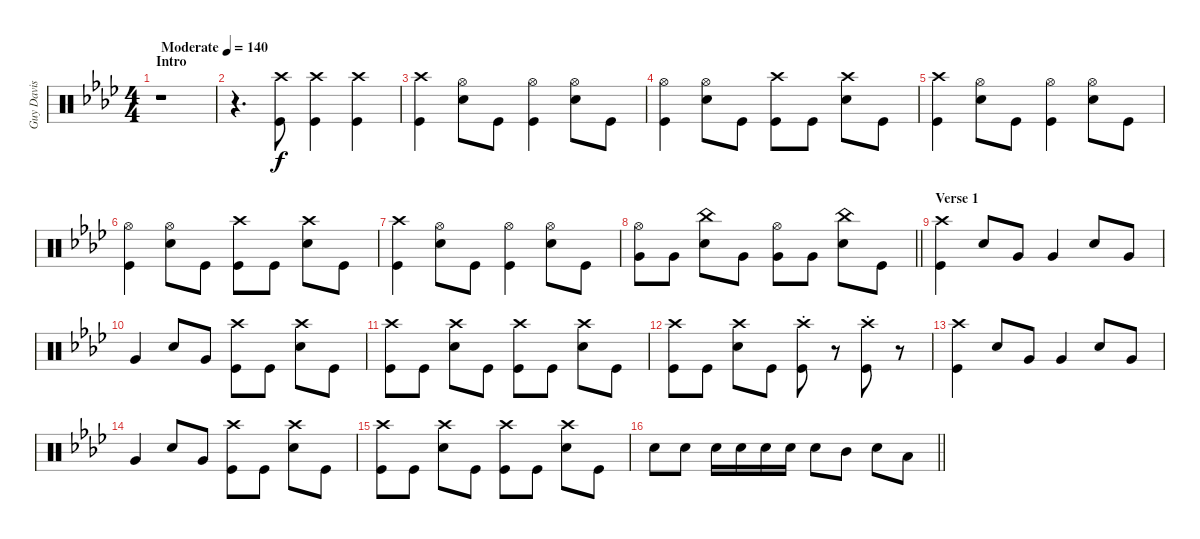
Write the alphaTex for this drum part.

\track ("Guy Davis" "Guy Davis") {instrument percussion}
\staff {score}
\articulation defaults
\ts (4 4)
\section ("" "Intro")
\tempo (140 "Moderate")
\clef neutral
\ks fminor
r.1{dy f} |
r.4{d} ("Crash high (hit)" "Kick (hit)").8 ("Crash high (hit)" "Kick (hit)").4 ("Crash high (hit)" "Kick (hit)").4 |
("Crash high (hit)" "Kick (hit)").4 ("Hi-Hat (open)" "Snare (hit) 2").8 "Kick (hit)".8 ("Hi-Hat (open)" "Kick (hit)").4 ("Hi-Hat (open)" "Snare (hit) 2").8 "Kick (hit)".8 |
("Hi-Hat (open)" "Kick (hit)").4 ("Hi-Hat (open)" "Snare (hit) 2").8 "Kick (hit)".8 ("Crash high (hit)" "Kick (hit)").8 "Kick (hit)".8 ("Crash high (hit)" "Snare (hit) 2").8 "Kick (hit)".8 |
("Crash high (hit)" "Kick (hit)").4 ("Hi-Hat (open)" "Snare (hit) 2").8 "Kick (hit)".8 ("Hi-Hat (open)" "Kick (hit)").4 ("Hi-Hat (open)" "Snare (hit) 2").8 "Kick (hit)".8 |
("Hi-Hat (open)" "Kick (hit)").4 ("Hi-Hat (open)" "Snare (hit) 2").8 "Kick (hit)".8 ("Crash high (hit)" "Kick (hit)").8 "Kick (hit)".8 ("Crash high (hit)" "Snare (hit) 2").8 "Kick (hit)".8 |
("Crash high (hit)" "Kick (hit)").4 ("Hi-Hat (open)" "Snare (hit) 2").8 "Kick (hit)".8 ("Hi-Hat (open)" "Kick (hit)").4 ("Hi-Hat (open)" "Snare (hit) 2").8 "Kick (hit)".8 |
\barLineRight lightlight
("Hi-Hat (open)" "Very Low Tom (hit)").8 "Very Low Tom (hit)".8 ("China (hit)" "Snare (hit) 2").8 "Very Low Tom (hit)".8 ("Hi-Hat (open)" "Very Low Tom (hit)").8 "Very Low Tom (hit)".8 ("China (hit)" "Snare (hit) 2").8 "Kick (hit)".8 |
\section ("" "Verse 1")
("Crash high (hit)" "Kick (hit)").4 "Snare (hit) 2".8 "Very Low Tom (hit)".8 "Very Low Tom (hit)".4 "Snare (hit) 2".8 "Very Low Tom (hit)".8 |
"Very Low Tom (hit)".4 "Snare (hit) 2".8 "Very Low Tom (hit)".8 ("Crash high (hit)" "Kick (hit)").8 "Kick (hit)".8 ("Crash high (hit)" "Snare (hit) 2").8 "Kick (hit)".8 |
("Crash high (hit)" "Kick (hit)").8 "Kick (hit)".8 ("Crash high (hit)" "Snare (hit) 2").8 "Kick (hit)".8 ("Crash high (hit)" "Kick (hit)").8 "Kick (hit)".8 ("Crash high (hit)" "Snare (hit) 2").8 "Kick (hit)".8 |
("Crash high (hit)" "Kick (hit)").8 "Kick (hit)".8 ("Crash high (hit)" "Snare (hit) 2").8 "Kick (hit)".8 ("Crash high (hit)"{st} "Kick (hit)").8 r.8 ("Crash high (hit)"{st} "Kick (hit)").8 r.8 |
("Crash high (hit)" "Kick (hit)").4 "Snare (hit) 2".8 "Very Low Tom (hit)".8 "Very Low Tom (hit)".4 "Snare (hit) 2".8 "Very Low Tom (hit)".8 |
"Very Low Tom (hit)".4 "Snare (hit) 2".8 "Very Low Tom (hit)".8 ("Crash high (hit)" "Kick (hit)").8 "Kick (hit)".8 ("Crash high (hit)" "Snare (hit) 2").8 "Kick (hit)".8 |
("Crash high (hit)" "Kick (hit)").8 "Kick (hit)".8 ("Crash high (hit)" "Snare (hit) 2").8 "Kick (hit)".8 ("Crash high (hit)" "Kick (hit)").8 "Kick (hit)".8 ("Crash high (hit)" "Snare (hit) 2").8 "Kick (hit)".8 |
\barLineRight lightlight "Snare (hit) 2".8 "Snare (hit) 2".8 "Snare (hit) 2".16 "Snare (hit) 2".16 "Snare (hit) 2".16 "Snare (hit) 2".16 "Snare (hit) 2".8 "Mid Tom (hit)".8 "Snare (hit) 2".8 "Low Tom (hit)".8
